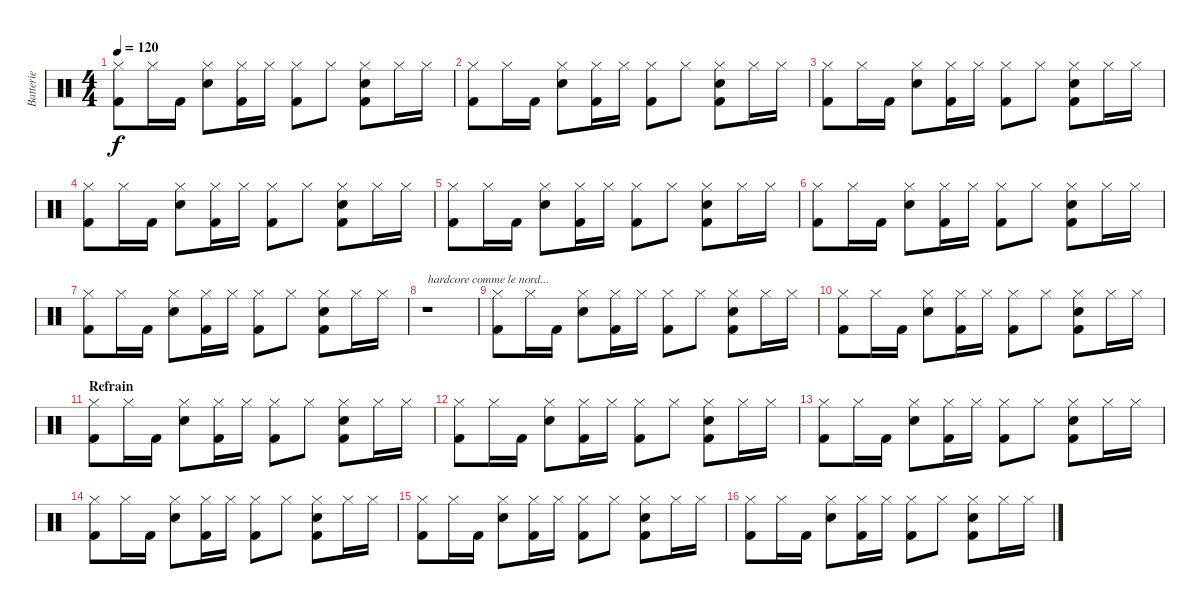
\track ("Batterie" "Batterie") {instrument percussion}
\staff {score}
\articulation defaults
\ts (4 4)
\tempo 120
\clef neutral
\ks c
("Kick (hit) 2" "Hi-Hat (closed)").8{dy f} "Hi-Hat (closed)".16 "Kick (hit) 2".16 ("Electric Snare (hit)" "Hi-Hat (closed)").8 ("Kick (hit) 2" "Hi-Hat (closed)").16 "Hi-Hat (closed)".16 ("Kick (hit) 2" "Hi-Hat (closed)").8 "Hi-Hat (closed)".8 ("Kick (hit) 2" "Electric Snare (hit)" "Hi-Hat (closed)").8 "Hi-Hat (closed)".16 "Hi-Hat (closed)".16 |
("Kick (hit) 2" "Hi-Hat (closed)").8 "Hi-Hat (closed)".16 "Kick (hit) 2".16 ("Electric Snare (hit)" "Hi-Hat (closed)").8 ("Kick (hit) 2" "Hi-Hat (closed)").16 "Hi-Hat (closed)".16 ("Kick (hit) 2" "Hi-Hat (closed)").8 "Hi-Hat (closed)".8 ("Kick (hit) 2" "Electric Snare (hit)" "Hi-Hat (closed)").8 "Hi-Hat (closed)".16 "Hi-Hat (closed)".16 |
("Kick (hit) 2" "Hi-Hat (closed)").8 "Hi-Hat (closed)".16 "Kick (hit) 2".16 ("Electric Snare (hit)" "Hi-Hat (closed)").8 ("Kick (hit) 2" "Hi-Hat (closed)").16 "Hi-Hat (closed)".16 ("Kick (hit) 2" "Hi-Hat (closed)").8 "Hi-Hat (closed)".8 ("Kick (hit) 2" "Electric Snare (hit)" "Hi-Hat (closed)").8 "Hi-Hat (closed)".16 "Hi-Hat (closed)".16 |
("Kick (hit) 2" "Hi-Hat (closed)").8 "Hi-Hat (closed)".16 "Kick (hit) 2".16 ("Electric Snare (hit)" "Hi-Hat (closed)").8 ("Kick (hit) 2" "Hi-Hat (closed)").16 "Hi-Hat (closed)".16 ("Kick (hit) 2" "Hi-Hat (closed)").8 "Hi-Hat (closed)".8 ("Kick (hit) 2" "Electric Snare (hit)" "Hi-Hat (closed)").8 "Hi-Hat (closed)".16 "Hi-Hat (closed)".16 |
("Kick (hit) 2" "Hi-Hat (closed)").8 "Hi-Hat (closed)".16 "Kick (hit) 2".16 ("Electric Snare (hit)" "Hi-Hat (closed)").8 ("Kick (hit) 2" "Hi-Hat (closed)").16 "Hi-Hat (closed)".16 ("Kick (hit) 2" "Hi-Hat (closed)").8 "Hi-Hat (closed)".8 ("Kick (hit) 2" "Electric Snare (hit)" "Hi-Hat (closed)").8 "Hi-Hat (closed)".16 "Hi-Hat (closed)".16 |
("Kick (hit) 2" "Hi-Hat (closed)").8 "Hi-Hat (closed)".16 "Kick (hit) 2".16 ("Electric Snare (hit)" "Hi-Hat (closed)").8 ("Kick (hit) 2" "Hi-Hat (closed)").16 "Hi-Hat (closed)".16 ("Kick (hit) 2" "Hi-Hat (closed)").8 "Hi-Hat (closed)".8 ("Kick (hit) 2" "Electric Snare (hit)" "Hi-Hat (closed)").8 "Hi-Hat (closed)".16 "Hi-Hat (closed)".16 |
("Kick (hit) 2" "Hi-Hat (closed)").8 "Hi-Hat (closed)".16 "Kick (hit) 2".16 ("Electric Snare (hit)" "Hi-Hat (closed)").8 ("Kick (hit) 2" "Hi-Hat (closed)").16 "Hi-Hat (closed)".16 ("Kick (hit) 2" "Hi-Hat (closed)").8 "Hi-Hat (closed)".8 ("Kick (hit) 2" "Electric Snare (hit)" "Hi-Hat (closed)").8 "Hi-Hat (closed)".16 "Hi-Hat (closed)".16 |
r.1{txt "hardcore comme le nord..."} |
("Kick (hit) 2" "Hi-Hat (closed)").8 "Hi-Hat (closed)".16 "Kick (hit) 2".16 ("Electric Snare (hit)" "Hi-Hat (closed)").8 ("Kick (hit) 2" "Hi-Hat (closed)").16 "Hi-Hat (closed)".16 ("Kick (hit) 2" "Hi-Hat (closed)").8 "Hi-Hat (closed)".8 ("Kick (hit) 2" "Electric Snare (hit)" "Hi-Hat (closed)").8 "Hi-Hat (closed)".16 "Hi-Hat (closed)".16 |
("Kick (hit) 2" "Hi-Hat (closed)").8 "Hi-Hat (closed)".16 "Kick (hit) 2".16 ("Electric Snare (hit)" "Hi-Hat (closed)").8 ("Kick (hit) 2" "Hi-Hat (closed)").16 "Hi-Hat (closed)".16 ("Kick (hit) 2" "Hi-Hat (closed)").8 "Hi-Hat (closed)".8 ("Kick (hit) 2" "Electric Snare (hit)" "Hi-Hat (closed)").8 "Hi-Hat (closed)".16 "Hi-Hat (closed)".16 |
\section ("" "Refrain")
("Kick (hit) 2" "Hi-Hat (closed)").8 "Hi-Hat (closed)".16 "Kick (hit) 2".16 ("Electric Snare (hit)" "Hi-Hat (closed)").8 ("Kick (hit) 2" "Hi-Hat (closed)").16 "Hi-Hat (closed)".16 ("Kick (hit) 2" "Hi-Hat (closed)").8 "Hi-Hat (closed)".8 ("Kick (hit) 2" "Electric Snare (hit)" "Hi-Hat (closed)").8 "Hi-Hat (closed)".16 "Hi-Hat (closed)".16 |
("Kick (hit) 2" "Hi-Hat (closed)").8 "Hi-Hat (closed)".16 "Kick (hit) 2".16 ("Electric Snare (hit)" "Hi-Hat (closed)").8 ("Kick (hit) 2" "Hi-Hat (closed)").16 "Hi-Hat (closed)".16 ("Kick (hit) 2" "Hi-Hat (closed)").8 "Hi-Hat (closed)".8 ("Kick (hit) 2" "Electric Snare (hit)" "Hi-Hat (closed)").8 "Hi-Hat (closed)".16 "Hi-Hat (closed)".16 |
("Kick (hit) 2" "Hi-Hat (closed)").8 "Hi-Hat (closed)".16 "Kick (hit) 2".16 ("Electric Snare (hit)" "Hi-Hat (closed)").8 ("Kick (hit) 2" "Hi-Hat (closed)").16 "Hi-Hat (closed)".16 ("Kick (hit) 2" "Hi-Hat (closed)").8 "Hi-Hat (closed)".8 ("Kick (hit) 2" "Electric Snare (hit)" "Hi-Hat (closed)").8 "Hi-Hat (closed)".16 "Hi-Hat (closed)".16 |
("Kick (hit) 2" "Hi-Hat (closed)").8 "Hi-Hat (closed)".16 "Kick (hit) 2".16 ("Electric Snare (hit)" "Hi-Hat (closed)").8 ("Kick (hit) 2" "Hi-Hat (closed)").16 "Hi-Hat (closed)".16 ("Kick (hit) 2" "Hi-Hat (closed)").8 "Hi-Hat (closed)".8 ("Kick (hit) 2" "Electric Snare (hit)" "Hi-Hat (closed)").8 "Hi-Hat (closed)".16 "Hi-Hat (closed)".16 |
("Kick (hit) 2" "Hi-Hat (closed)").8 "Hi-Hat (closed)".16 "Kick (hit) 2".16 ("Electric Snare (hit)" "Hi-Hat (closed)").8 ("Kick (hit) 2" "Hi-Hat (closed)").16 "Hi-Hat (closed)".16 ("Kick (hit) 2" "Hi-Hat (closed)").8 "Hi-Hat (closed)".8 ("Kick (hit) 2" "Electric Snare (hit)" "Hi-Hat (closed)").8 "Hi-Hat (closed)".16 "Hi-Hat (closed)".16 |
("Kick (hit) 2" "Hi-Hat (closed)").8 "Hi-Hat (closed)".16 "Kick (hit) 2".16 ("Electric Snare (hit)" "Hi-Hat (closed)").8 ("Kick (hit) 2" "Hi-Hat (closed)").16 "Hi-Hat (closed)".16 ("Kick (hit) 2" "Hi-Hat (closed)").8 "Hi-Hat (closed)".8 ("Kick (hit) 2" "Electric Snare (hit)" "Hi-Hat (closed)").8 "Hi-Hat (closed)".16 "Hi-Hat (closed)".16
